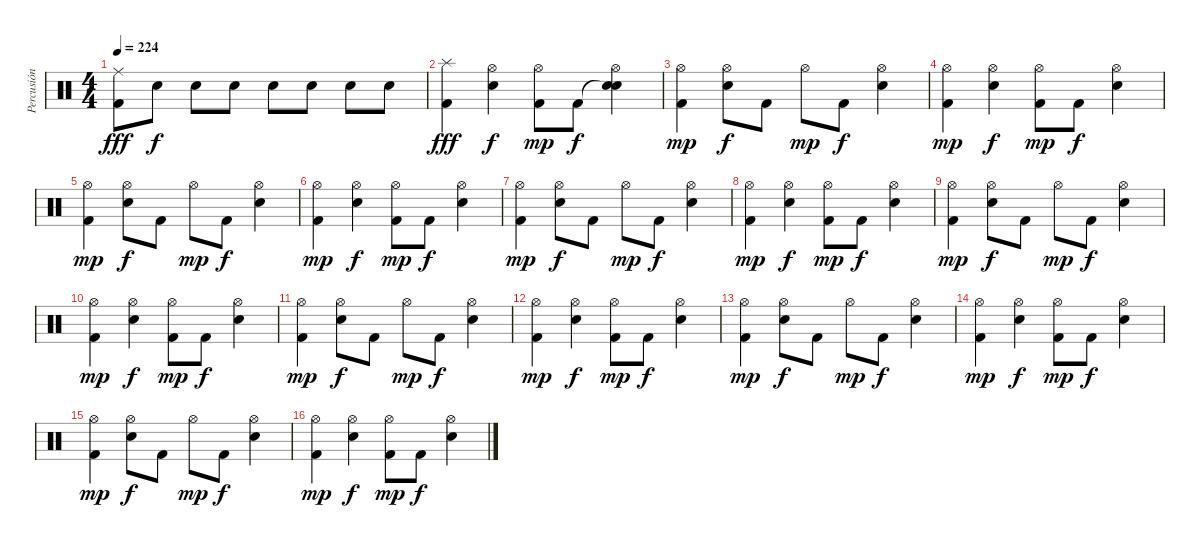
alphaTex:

\track ("Percusión" "Percusión") {instrument percussion}
\staff {score}
\articulation defaults
\ts (4 4)
\tempo 224
\clef neutral
\ks c
("Ride (middle)" "Kick (hit) 2").8{dy fff} "Electric Snare (hit)".8{dy f} "Electric Snare (hit)".8 "Electric Snare (hit)".8 "Electric Snare (hit)".8 "Electric Snare (hit)".8 "Electric Snare (hit)".8 "Electric Snare (hit)".8 |
("Splash (hit)" "Kick (hit) 2").4{dy fff} ("Hi-Hat (open)" "Electric Snare (hit)").4{dy f} ("Hi-Hat (open)" "Kick (hit) 2").8{dy mp} "Kick (hit) 2".8{dy f} ("Snare (hit)"{t} "Hi-Hat (open)" "Electric Snare (hit)").4 |
("Hi-Hat (open)" "Kick (hit) 2").4{dy mp} ("Hi-Hat (open)" "Electric Snare (hit)").8{dy f} "Kick (hit) 2".8 "Hi-Hat (open)".8{dy mp} "Kick (hit) 2".8{dy f} ("Hi-Hat (open)" "Electric Snare (hit)").4 |
("Hi-Hat (open)" "Kick (hit) 2").4{dy mp} ("Hi-Hat (open)" "Electric Snare (hit)").4{dy f} ("Hi-Hat (open)" "Kick (hit) 2").8{dy mp} "Kick (hit) 2".8{dy f} ("Hi-Hat (open)" "Electric Snare (hit)").4 |
("Hi-Hat (open)" "Kick (hit) 2").4{dy mp} ("Hi-Hat (open)" "Electric Snare (hit)").8{dy f} "Kick (hit) 2".8 "Hi-Hat (open)".8{dy mp} "Kick (hit) 2".8{dy f} ("Hi-Hat (open)" "Electric Snare (hit)").4 |
("Hi-Hat (open)" "Kick (hit) 2").4{dy mp} ("Hi-Hat (open)" "Electric Snare (hit)").4{dy f} ("Hi-Hat (open)" "Kick (hit) 2").8{dy mp} "Kick (hit) 2".8{dy f} ("Hi-Hat (open)" "Electric Snare (hit)").4 |
("Hi-Hat (open)" "Kick (hit) 2").4{dy mp} ("Hi-Hat (open)" "Electric Snare (hit)").8{dy f} "Kick (hit) 2".8 "Hi-Hat (open)".8{dy mp} "Kick (hit) 2".8{dy f} ("Hi-Hat (open)" "Electric Snare (hit)").4 |
("Hi-Hat (open)" "Kick (hit) 2").4{dy mp} ("Hi-Hat (open)" "Electric Snare (hit)").4{dy f} ("Hi-Hat (open)" "Kick (hit) 2").8{dy mp} "Kick (hit) 2".8{dy f} ("Hi-Hat (open)" "Electric Snare (hit)").4 |
("Hi-Hat (open)" "Kick (hit) 2").4{dy mp} ("Hi-Hat (open)" "Electric Snare (hit)").8{dy f} "Kick (hit) 2".8 "Hi-Hat (open)".8{dy mp} "Kick (hit) 2".8{dy f} ("Hi-Hat (open)" "Electric Snare (hit)").4 |
("Hi-Hat (open)" "Kick (hit) 2").4{dy mp} ("Hi-Hat (open)" "Electric Snare (hit)").4{dy f} ("Hi-Hat (open)" "Kick (hit) 2").8{dy mp} "Kick (hit) 2".8{dy f} ("Hi-Hat (open)" "Electric Snare (hit)").4 |
("Hi-Hat (open)" "Kick (hit) 2").4{dy mp} ("Hi-Hat (open)" "Electric Snare (hit)").8{dy f} "Kick (hit) 2".8 "Hi-Hat (open)".8{dy mp} "Kick (hit) 2".8{dy f} ("Hi-Hat (open)" "Electric Snare (hit)").4 |
("Hi-Hat (open)" "Kick (hit) 2").4{dy mp} ("Hi-Hat (open)" "Electric Snare (hit)").4{dy f} ("Hi-Hat (open)" "Kick (hit) 2").8{dy mp} "Kick (hit) 2".8{dy f} ("Hi-Hat (open)" "Electric Snare (hit)").4 |
("Hi-Hat (open)" "Kick (hit) 2").4{dy mp} ("Hi-Hat (open)" "Electric Snare (hit)").8{dy f} "Kick (hit) 2".8 "Hi-Hat (open)".8{dy mp} "Kick (hit) 2".8{dy f} ("Hi-Hat (open)" "Electric Snare (hit)").4 |
("Hi-Hat (open)" "Kick (hit) 2").4{dy mp} ("Hi-Hat (open)" "Electric Snare (hit)").4{dy f} ("Hi-Hat (open)" "Kick (hit) 2").8{dy mp} "Kick (hit) 2".8{dy f} ("Hi-Hat (open)" "Electric Snare (hit)").4 |
("Hi-Hat (open)" "Kick (hit) 2").4{dy mp} ("Hi-Hat (open)" "Electric Snare (hit)").8{dy f} "Kick (hit) 2".8 "Hi-Hat (open)".8{dy mp} "Kick (hit) 2".8{dy f} ("Hi-Hat (open)" "Electric Snare (hit)").4 |
("Hi-Hat (open)" "Kick (hit) 2").4{dy mp} ("Hi-Hat (open)" "Electric Snare (hit)").4{dy f} ("Hi-Hat (open)" "Kick (hit) 2").8{dy mp} "Kick (hit) 2".8{dy f} ("Hi-Hat (open)" "Electric Snare (hit)").4
